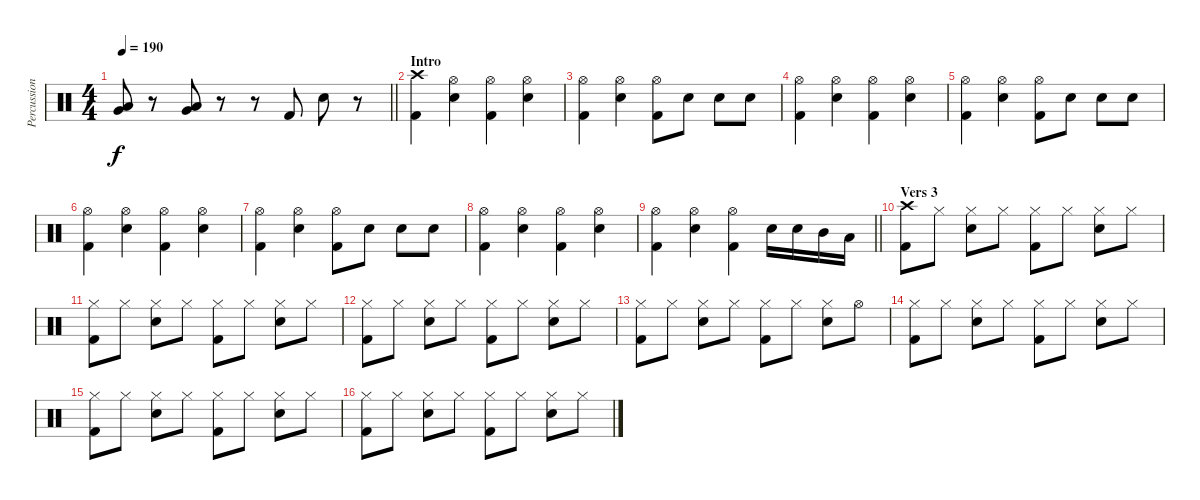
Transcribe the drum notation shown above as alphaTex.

\track ("Percussion" "Percussion") {instrument percussion}
\staff {score}
\articulation defaults
\ts (4 4)
\tempo 190
\clef neutral
\barLineRight lightlight
\ks c
("Very Low Tom (hit)" "Low Floor Tom (hit)").8{dy f} r.8 ("Very Low Tom (hit)" "Low Floor Tom (hit)").8 r.8 r.8 "Kick (hit) 2".8 "Snare (hit) 2".8 r.8 |
\section ("" "Intro")
("Kick (hit) 2" "Crash high (hit)").4 ("Hi-Hat (open)" "Snare (hit) 2").4 ("Kick (hit) 2" "Hi-Hat (open)").4 ("Hi-Hat (open)" "Snare (hit) 2").4 |
("Kick (hit) 2" "Hi-Hat (open)").4 ("Hi-Hat (open)" "Snare (hit) 2").4 ("Kick (hit) 2" "Hi-Hat (open)").8 "Snare (hit) 2".8 "Snare (hit) 2".8 "Snare (hit) 2".8 |
("Kick (hit) 2" "Hi-Hat (open)").4 ("Hi-Hat (open)" "Snare (hit) 2").4 ("Kick (hit) 2" "Hi-Hat (open)").4 ("Hi-Hat (open)" "Snare (hit) 2").4 |
("Kick (hit) 2" "Hi-Hat (open)").4 ("Hi-Hat (open)" "Snare (hit) 2").4 ("Kick (hit) 2" "Hi-Hat (open)").8 "Snare (hit) 2".8 "Snare (hit) 2".8 "Snare (hit) 2".8 |
("Kick (hit) 2" "Hi-Hat (open)").4 ("Hi-Hat (open)" "Snare (hit) 2").4 ("Kick (hit) 2" "Hi-Hat (open)").4 ("Hi-Hat (open)" "Snare (hit) 2").4 |
("Kick (hit) 2" "Hi-Hat (open)").4 ("Hi-Hat (open)" "Snare (hit) 2").4 ("Kick (hit) 2" "Hi-Hat (open)").8 "Snare (hit) 2".8 "Snare (hit) 2".8 "Snare (hit) 2".8 |
("Kick (hit) 2" "Hi-Hat (open)").4 ("Hi-Hat (open)" "Snare (hit) 2").4 ("Kick (hit) 2" "Hi-Hat (open)").4 ("Hi-Hat (open)" "Snare (hit) 2").4 |
\barLineRight lightlight
("Kick (hit) 2" "Hi-Hat (open)").4 ("Hi-Hat (open)" "Snare (hit) 2").4 ("Kick (hit) 2" "Hi-Hat (open)").4 "Snare (hit) 2".16 "Snare (hit) 2".16 "Mid Tom (hit)".16 "Low Tom (hit)".16 |
\section ("" "Vers 3")
("Kick (hit) 2" "Crash high (hit)").8 "Hi-Hat (closed)".8 ("Hi-Hat (closed)" "Snare (hit) 2").8 "Hi-Hat (closed)".8 ("Kick (hit) 2" "Hi-Hat (closed)").8 "Hi-Hat (closed)".8 ("Hi-Hat (closed)" "Snare (hit) 2").8 "Hi-Hat (closed)".8 |
("Kick (hit) 2" "Hi-Hat (closed)").8 "Hi-Hat (closed)".8 ("Hi-Hat (closed)" "Snare (hit) 2").8 "Hi-Hat (closed)".8 ("Kick (hit) 2" "Hi-Hat (closed)").8 "Hi-Hat (closed)".8 ("Hi-Hat (closed)" "Snare (hit) 2").8 "Hi-Hat (closed)".8 |
("Kick (hit) 2" "Hi-Hat (closed)").8 "Hi-Hat (closed)".8 ("Hi-Hat (closed)" "Snare (hit) 2").8 "Hi-Hat (closed)".8 ("Kick (hit) 2" "Hi-Hat (closed)").8 "Hi-Hat (closed)".8 ("Hi-Hat (closed)" "Snare (hit) 2").8 "Hi-Hat (closed)".8 |
("Kick (hit) 2" "Hi-Hat (closed)").8 "Hi-Hat (closed)".8 ("Hi-Hat (closed)" "Snare (hit) 2").8 "Hi-Hat (closed)".8 ("Kick (hit) 2" "Hi-Hat (closed)").8 "Hi-Hat (closed)".8 ("Hi-Hat (closed)" "Snare (hit) 2").8 "Hi-Hat (open)".8 |
("Kick (hit) 2" "Hi-Hat (closed)").8 "Hi-Hat (closed)".8 ("Hi-Hat (closed)" "Snare (hit) 2").8 "Hi-Hat (closed)".8 ("Kick (hit) 2" "Hi-Hat (closed)").8 "Hi-Hat (closed)".8 ("Hi-Hat (closed)" "Snare (hit) 2").8 "Hi-Hat (closed)".8 |
("Kick (hit) 2" "Hi-Hat (closed)").8 "Hi-Hat (closed)".8 ("Hi-Hat (closed)" "Snare (hit) 2").8 "Hi-Hat (closed)".8 ("Kick (hit) 2" "Hi-Hat (closed)").8 "Hi-Hat (closed)".8 ("Hi-Hat (closed)" "Snare (hit) 2").8 "Hi-Hat (closed)".8 |
("Kick (hit) 2" "Hi-Hat (closed)").8 "Hi-Hat (closed)".8 ("Hi-Hat (closed)" "Snare (hit) 2").8 "Hi-Hat (closed)".8 ("Kick (hit) 2" "Hi-Hat (closed)").8 "Hi-Hat (closed)".8 ("Hi-Hat (closed)" "Snare (hit) 2").8 "Hi-Hat (closed)".8
